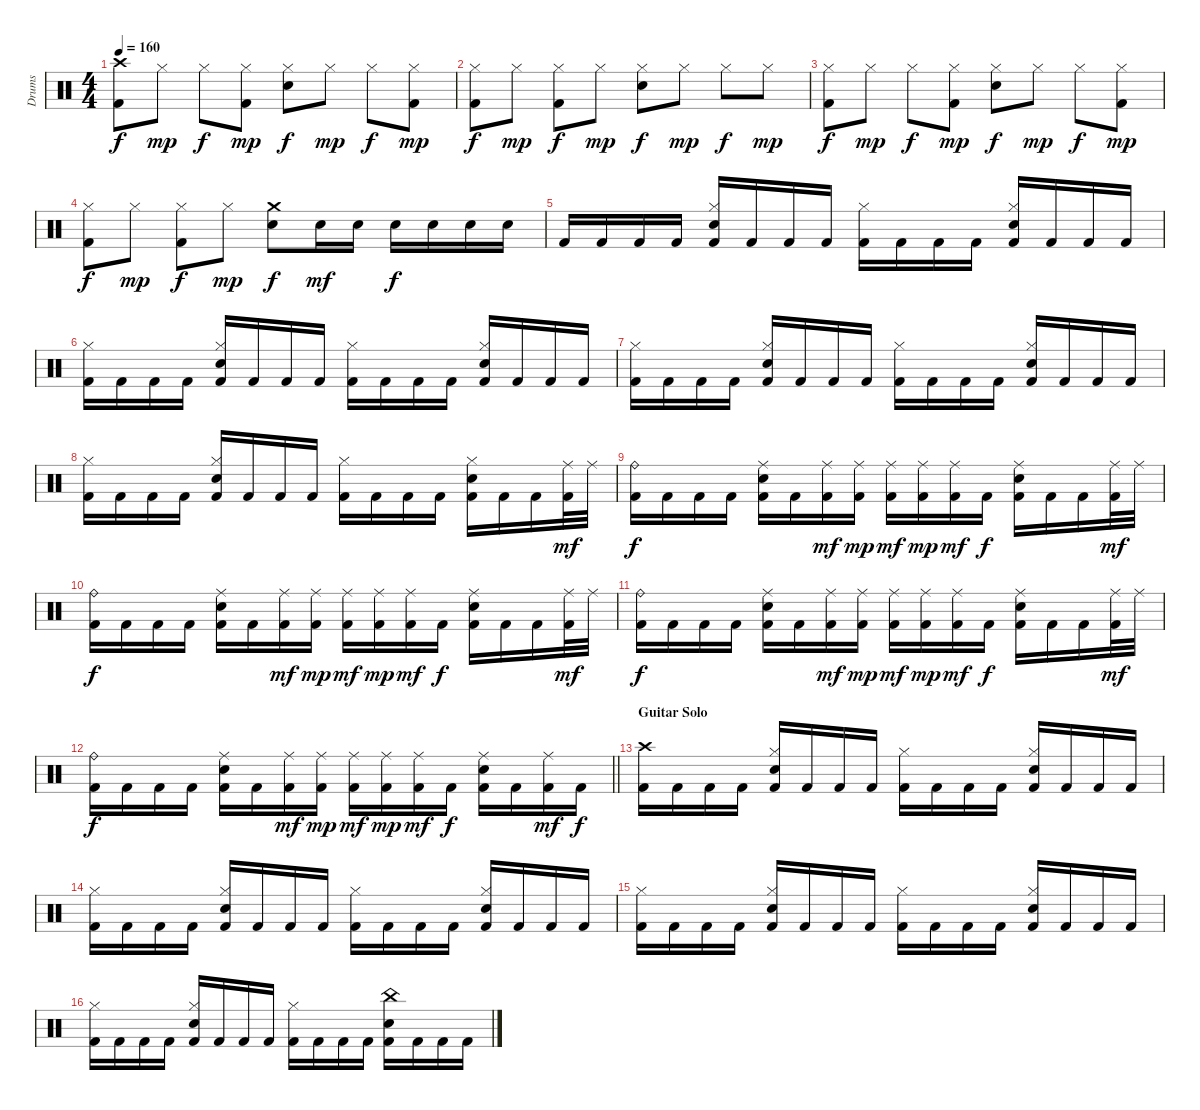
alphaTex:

\track ("Drums" "Drums") {instrument percussion}
\staff {score}
\articulation defaults
\ts (4 4)
\tempo 160
\clef neutral
\ks c
("Kick (hit) 2" "Crash high (hit)").8{dy f} "Hi-Hat (closed)".8{dy mp} "Hi-Hat (closed)".8{dy f} ("Kick (hit) 2" "Hi-Hat (closed)").8{dy mp} ("Hi-Hat (closed)" "Electric Snare (hit)").8{dy f} "Hi-Hat (closed)".8{dy mp} "Hi-Hat (closed)".8{dy f} ("Kick (hit) 2" "Hi-Hat (closed)").8{dy mp} |
("Kick (hit) 2" "Hi-Hat (closed)").8{dy f} "Hi-Hat (closed)".8{dy mp} ("Kick (hit) 2" "Hi-Hat (closed)").8{dy f} "Hi-Hat (closed)".8{dy mp} ("Hi-Hat (closed)" "Electric Snare (hit)").8{dy f} "Hi-Hat (closed)".8{dy mp} "Hi-Hat (closed)".8{dy f} "Hi-Hat (closed)".8{dy mp} |
("Kick (hit) 2" "Hi-Hat (closed)").8{dy f} "Hi-Hat (closed)".8{dy mp} "Hi-Hat (closed)".8{dy f} ("Kick (hit) 2" "Hi-Hat (closed)").8{dy mp} ("Hi-Hat (closed)" "Electric Snare (hit)").8{dy f} "Hi-Hat (closed)".8{dy mp} "Hi-Hat (closed)".8{dy f} ("Kick (hit) 2" "Hi-Hat (closed)").8{dy mp} |
("Kick (hit) 2" "Hi-Hat (closed)").8{dy f} "Hi-Hat (closed)".8{dy mp} ("Kick (hit) 2" "Hi-Hat (closed)").8{dy f} "Hi-Hat (closed)".8{dy mp} ("Crash medium (hit)" "Electric Snare (hit)").8{dy f} "Electric Snare (hit)".16{dy mf} "Electric Snare (hit)".16 "Electric Snare (hit)".16{dy f} "Electric Snare (hit)".16 "Electric Snare (hit)".16 "Electric Snare (hit)".16 |
"Kick (hit) 2".16 "Kick (hit) 2".16 "Kick (hit) 2".16 "Kick (hit) 2".16 ("Kick (hit) 2" "Hi-Hat (closed)" "Electric Snare (hit)").16 "Kick (hit) 2".16 "Kick (hit) 2".16 "Kick (hit) 2".16 ("Kick (hit) 2" "Hi-Hat (closed)").16 "Kick (hit) 2".16 "Kick (hit) 2".16 "Kick (hit) 2".16 ("Kick (hit) 2" "Hi-Hat (closed)" "Electric Snare (hit)").16 "Kick (hit) 2".16 "Kick (hit) 2".16 "Kick (hit) 2".16 |
("Kick (hit) 2" "Hi-Hat (closed)").16 "Kick (hit) 2".16 "Kick (hit) 2".16 "Kick (hit) 2".16 ("Kick (hit) 2" "Hi-Hat (closed)" "Electric Snare (hit)").16 "Kick (hit) 2".16 "Kick (hit) 2".16 "Kick (hit) 2".16 ("Kick (hit) 2" "Hi-Hat (closed)").16 "Kick (hit) 2".16 "Kick (hit) 2".16 "Kick (hit) 2".16 ("Kick (hit) 2" "Hi-Hat (closed)" "Electric Snare (hit)").16 "Kick (hit) 2".16 "Kick (hit) 2".16 "Kick (hit) 2".16 |
("Kick (hit) 2" "Hi-Hat (closed)").16 "Kick (hit) 2".16 "Kick (hit) 2".16 "Kick (hit) 2".16 ("Kick (hit) 2" "Hi-Hat (closed)" "Electric Snare (hit)").16 "Kick (hit) 2".16 "Kick (hit) 2".16 "Kick (hit) 2".16 ("Kick (hit) 2" "Hi-Hat (closed)").16 "Kick (hit) 2".16 "Kick (hit) 2".16 "Kick (hit) 2".16 ("Kick (hit) 2" "Hi-Hat (closed)" "Electric Snare (hit)").16 "Kick (hit) 2".16 "Kick (hit) 2".16 "Kick (hit) 2".16 |
("Kick (hit) 2" "Hi-Hat (closed)").16 "Kick (hit) 2".16 "Kick (hit) 2".16 "Kick (hit) 2".16 ("Kick (hit) 2" "Hi-Hat (closed)" "Electric Snare (hit)").16 "Kick (hit) 2".16 "Kick (hit) 2".16 "Kick (hit) 2".16 ("Kick (hit) 2" "Hi-Hat (closed)").16 "Kick (hit) 2".16 "Kick (hit) 2".16 "Kick (hit) 2".16 ("Kick (hit) 2" "Hi-Hat (closed)" "Electric Snare (hit)").16 "Kick (hit) 2".16 "Kick (hit) 2".16 ("Kick (hit) 2" "Ride (middle)").32{dy mf} "Ride (middle)".32 |
("Kick (hit) 2" "Ride (bell)").16{dy f} "Kick (hit) 2".16 "Kick (hit) 2".16 "Kick (hit) 2".16 ("Kick (hit) 2" "Ride (middle)" "Electric Snare (hit)").16 "Kick (hit) 2".16 ("Kick (hit) 2" "Ride (middle)").16{dy mf} ("Kick (hit) 2" "Ride (middle)").16{dy mp} ("Kick (hit) 2" "Ride (middle)").16{dy mf} ("Kick (hit) 2" "Ride (middle)").16{dy mp} ("Kick (hit) 2" "Ride (middle)").16{dy mf} "Kick (hit) 2".16{dy f} ("Kick (hit) 2" "Ride (middle)" "Electric Snare (hit)").16 "Kick (hit) 2".16 "Kick (hit) 2".16 ("Kick (hit) 2" "Ride (middle)").32{dy mf} "Ride (middle)".32 |
("Kick (hit) 2" "Ride (bell)").16{dy f} "Kick (hit) 2".16 "Kick (hit) 2".16 "Kick (hit) 2".16 ("Kick (hit) 2" "Ride (middle)" "Electric Snare (hit)").16 "Kick (hit) 2".16 ("Kick (hit) 2" "Ride (middle)").16{dy mf} ("Kick (hit) 2" "Ride (middle)").16{dy mp} ("Kick (hit) 2" "Ride (middle)").16{dy mf} ("Kick (hit) 2" "Ride (middle)").16{dy mp} ("Kick (hit) 2" "Ride (middle)").16{dy mf} "Kick (hit) 2".16{dy f} ("Kick (hit) 2" "Ride (middle)" "Electric Snare (hit)").16 "Kick (hit) 2".16 "Kick (hit) 2".16 ("Kick (hit) 2" "Ride (middle)").32{dy mf} "Ride (middle)".32 |
("Kick (hit) 2" "Ride (bell)").16{dy f} "Kick (hit) 2".16 "Kick (hit) 2".16 "Kick (hit) 2".16 ("Kick (hit) 2" "Ride (middle)" "Electric Snare (hit)").16 "Kick (hit) 2".16 ("Kick (hit) 2" "Ride (middle)").16{dy mf} ("Kick (hit) 2" "Ride (middle)").16{dy mp} ("Kick (hit) 2" "Ride (middle)").16{dy mf} ("Kick (hit) 2" "Ride (middle)").16{dy mp} ("Kick (hit) 2" "Ride (middle)").16{dy mf} "Kick (hit) 2".16{dy f} ("Kick (hit) 2" "Ride (middle)" "Electric Snare (hit)").16 "Kick (hit) 2".16 "Kick (hit) 2".16 ("Kick (hit) 2" "Ride (middle)").32{dy mf} "Ride (middle)".32 |
\barLineRight lightlight
("Kick (hit) 2" "Ride (bell)").16{dy f} "Kick (hit) 2".16 "Kick (hit) 2".16 "Kick (hit) 2".16 ("Kick (hit) 2" "Ride (middle)" "Electric Snare (hit)").16 "Kick (hit) 2".16 ("Kick (hit) 2" "Ride (middle)").16{dy mf} ("Kick (hit) 2" "Ride (middle)").16{dy mp} ("Kick (hit) 2" "Ride (middle)").16{dy mf} ("Kick (hit) 2" "Ride (middle)").16{dy mp} ("Kick (hit) 2" "Ride (middle)").16{dy mf} "Kick (hit) 2".16{dy f} ("Kick (hit) 2" "Ride (middle)" "Electric Snare (hit)").16 "Kick (hit) 2".16 ("Kick (hit) 2" "Ride (middle)").16{dy mf} "Kick (hit) 2".16{dy f} |
\section ("" "Guitar Solo")
("Kick (hit) 2" "Crash high (hit)").16 "Kick (hit) 2".16 "Kick (hit) 2".16 "Kick (hit) 2".16 ("Kick (hit) 2" "Hi-Hat (closed)" "Electric Snare (hit)").16 "Kick (hit) 2".16 "Kick (hit) 2".16 "Kick (hit) 2".16 ("Kick (hit) 2" "Hi-Hat (closed)").16 "Kick (hit) 2".16 "Kick (hit) 2".16 "Kick (hit) 2".16 ("Kick (hit) 2" "Hi-Hat (closed)" "Electric Snare (hit)").16 "Kick (hit) 2".16 "Kick (hit) 2".16 "Kick (hit) 2".16 |
("Kick (hit) 2" "Hi-Hat (closed)").16 "Kick (hit) 2".16 "Kick (hit) 2".16 "Kick (hit) 2".16 ("Kick (hit) 2" "Hi-Hat (closed)" "Electric Snare (hit)").16 "Kick (hit) 2".16 "Kick (hit) 2".16 "Kick (hit) 2".16 ("Kick (hit) 2" "Hi-Hat (closed)").16 "Kick (hit) 2".16 "Kick (hit) 2".16 "Kick (hit) 2".16 ("Kick (hit) 2" "Hi-Hat (closed)" "Electric Snare (hit)").16 "Kick (hit) 2".16 "Kick (hit) 2".16 "Kick (hit) 2".16 |
("Kick (hit) 2" "Hi-Hat (closed)").16 "Kick (hit) 2".16 "Kick (hit) 2".16 "Kick (hit) 2".16 ("Kick (hit) 2" "Hi-Hat (closed)" "Electric Snare (hit)").16 "Kick (hit) 2".16 "Kick (hit) 2".16 "Kick (hit) 2".16 ("Kick (hit) 2" "Hi-Hat (closed)").16 "Kick (hit) 2".16 "Kick (hit) 2".16 "Kick (hit) 2".16 ("Kick (hit) 2" "Hi-Hat (closed)" "Electric Snare (hit)").16 "Kick (hit) 2".16 "Kick (hit) 2".16 "Kick (hit) 2".16 |
("Kick (hit) 2" "Hi-Hat (closed)").16 "Kick (hit) 2".16 "Kick (hit) 2".16 "Kick (hit) 2".16 ("Kick (hit) 2" "Hi-Hat (closed)" "Electric Snare (hit)").16 "Kick (hit) 2".16 "Kick (hit) 2".16 "Kick (hit) 2".16 ("Kick (hit) 2" "Hi-Hat (closed)").16 "Kick (hit) 2".16 "Kick (hit) 2".16 "Kick (hit) 2".16 ("Kick (hit) 2" "China (hit)" "Electric Snare (hit)").16 "Kick (hit) 2".16 "Kick (hit) 2".16 "Kick (hit) 2".16
